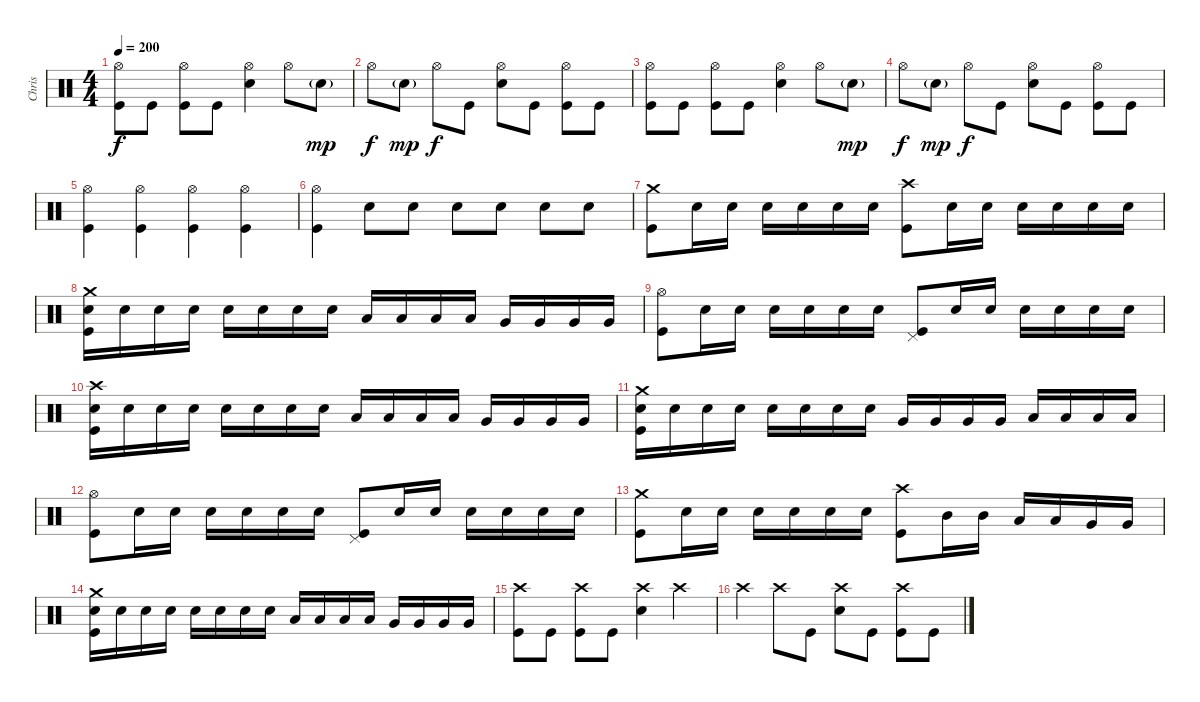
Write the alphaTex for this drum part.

\track ("Chris" "Chris") {instrument percussion}
\staff {score}
\articulation defaults
\ts (4 4)
\tempo 200
\clef neutral
\ks c
("Hi-Hat (open)" "Kick (hit)").8{dy f} "Kick (hit)".8 ("Hi-Hat (open)" "Kick (hit)").8 "Kick (hit)".8 ("Hi-Hat (open)" "Electric Snare (hit)").4 "Hi-Hat (open)".8 "Electric Snare (hit)"{g}.8{dy mp} |
"Hi-Hat (open)".8{dy f} "Electric Snare (hit)"{g}.8{dy mp} "Hi-Hat (open)".8{dy f} "Kick (hit)".8 ("Hi-Hat (open)" "Electric Snare (hit)").8 "Kick (hit)".8 ("Hi-Hat (open)" "Kick (hit)").8 "Kick (hit)".8 |
("Hi-Hat (open)" "Kick (hit)").8 "Kick (hit)".8 ("Hi-Hat (open)" "Kick (hit)").8 "Kick (hit)".8 ("Hi-Hat (open)" "Electric Snare (hit)").4 "Hi-Hat (open)".8 "Electric Snare (hit)"{g}.8{dy mp} |
"Hi-Hat (open)".8{dy f} "Electric Snare (hit)"{g}.8{dy mp} "Hi-Hat (open)".8{dy f} "Kick (hit)".8 ("Hi-Hat (open)" "Electric Snare (hit)").8 "Kick (hit)".8 ("Hi-Hat (open)" "Kick (hit)").8 "Kick (hit)".8 |
("Hi-Hat (open)" "Kick (hit)").4 ("Hi-Hat (open)" "Kick (hit)").4 ("Hi-Hat (open)" "Kick (hit)").4 ("Hi-Hat (open)" "Kick (hit)").4 |
("Hi-Hat (open)" "Kick (hit)").4 "Electric Snare (hit)".8 "Electric Snare (hit)".8 "Electric Snare (hit)".8 "Electric Snare (hit)".8 "Electric Snare (hit)".8 "Electric Snare (hit)".8 |
("Crash medium (hit)" "Kick (hit)").8 "Electric Snare (hit)".16 "Electric Snare (hit)".16 "Electric Snare (hit)".16 "Electric Snare (hit)".16 "Electric Snare (hit)".16 "Electric Snare (hit)".16 ("Crash high (hit)" "Kick (hit)").8 "Electric Snare (hit)".16 "Electric Snare (hit)".16 "Electric Snare (hit)".16 "Electric Snare (hit)".16 "Electric Snare (hit)".16 "Electric Snare (hit)".16 |
("Crash medium (hit)" "Electric Snare (hit)" "Kick (hit)").16 "Electric Snare (hit)".16 "Electric Snare (hit)".16 "Electric Snare (hit)".16 "Electric Snare (hit)".16 "Electric Snare (hit)".16 "Electric Snare (hit)".16 "Electric Snare (hit)".16 "Low Tom (hit)".16 "Low Tom (hit)".16 "Low Tom (hit)".16 "Low Tom (hit)".16 "Very Low Tom (hit)".16 "Very Low Tom (hit)".16 "Very Low Tom (hit)".16 "Very Low Tom (hit)".16 |
("Hi-Hat (open)" "Kick (hit)").8 "Electric Snare (hit)".16 "Electric Snare (hit)".16 "Electric Snare (hit)".16 "Electric Snare (hit)".16 "Electric Snare (hit)".16 "Electric Snare (hit)".16 ("Pedal Hi-Hat (hit)" "Kick (hit)").8 "Electric Snare (hit)".16 "Electric Snare (hit)".16 "Electric Snare (hit)".16 "Electric Snare (hit)".16 "Electric Snare (hit)".16 "Electric Snare (hit)".16 |
("Crash high (hit)" "Electric Snare (hit)" "Kick (hit)").16 "Electric Snare (hit)".16 "Electric Snare (hit)".16 "Electric Snare (hit)".16 "Electric Snare (hit)".16 "Electric Snare (hit)".16 "Electric Snare (hit)".16 "Electric Snare (hit)".16 "Low Tom (hit)".16 "Low Tom (hit)".16 "Low Tom (hit)".16 "Low Tom (hit)".16 "Very Low Tom (hit)".16 "Very Low Tom (hit)".16 "Very Low Tom (hit)".16 "Very Low Tom (hit)".16 |
("Crash medium (hit)" "Electric Snare (hit)" "Kick (hit)").16 "Electric Snare (hit)".16 "Electric Snare (hit)".16 "Electric Snare (hit)".16 "Electric Snare (hit)".16 "Electric Snare (hit)".16 "Electric Snare (hit)".16 "Electric Snare (hit)".16 "Very Low Tom (hit)".16 "Very Low Tom (hit)".16 "Very Low Tom (hit)".16 "Very Low Tom (hit)".16 "Low Floor Tom (hit)".16 "Low Floor Tom (hit)".16 "Low Floor Tom (hit)".16 "Low Floor Tom (hit)".16 |
("Hi-Hat (open)" "Kick (hit)").8 "Electric Snare (hit)".16 "Electric Snare (hit)".16 "Electric Snare (hit)".16 "Electric Snare (hit)".16 "Electric Snare (hit)".16 "Electric Snare (hit)".16 ("Pedal Hi-Hat (hit)" "Kick (hit)").8 "Electric Snare (hit)".16 "Electric Snare (hit)".16 "Electric Snare (hit)".16 "Electric Snare (hit)".16 "Electric Snare (hit)".16 "Electric Snare (hit)".16 |
("Crash medium (hit)" "Kick (hit)").8 "Electric Snare (hit)".16 "Electric Snare (hit)".16 "Electric Snare (hit)".16 "Electric Snare (hit)".16 "Electric Snare (hit)".16 "Electric Snare (hit)".16 ("Crash high (hit)" "Kick (hit)").8 "Mid Tom (hit)".16 "Mid Tom (hit)".16 "Low Tom (hit)".16 "Low Tom (hit)".16 "Very Low Tom (hit)".16 "Very Low Tom (hit)".16 |
("Crash medium (hit)" "Electric Snare (hit)" "Kick (hit)").16 "Electric Snare (hit)".16 "Electric Snare (hit)".16 "Electric Snare (hit)".16 "Electric Snare (hit)".16 "Electric Snare (hit)".16 "Electric Snare (hit)".16 "Electric Snare (hit)".16 "Low Tom (hit)".16 "Low Tom (hit)".16 "Low Tom (hit)".16 "Low Tom (hit)".16 "Very Low Tom (hit)".16 "Very Low Tom (hit)".16 "Very Low Tom (hit)".16 "Very Low Tom (hit)".16 |
("Crash high (hit)" "Kick (hit)").8 "Kick (hit)".8 ("Crash high (hit)" "Kick (hit)").8 "Kick (hit)".8 ("Crash high (hit)" "Electric Snare (hit)").4 "Crash high (hit)".4 |
"Crash high (hit)".4 "Crash high (hit)".8 "Kick (hit)".8 ("Crash high (hit)" "Electric Snare (hit)").8 "Kick (hit)".8 ("Crash high (hit)" "Kick (hit)").8 "Kick (hit)".8
